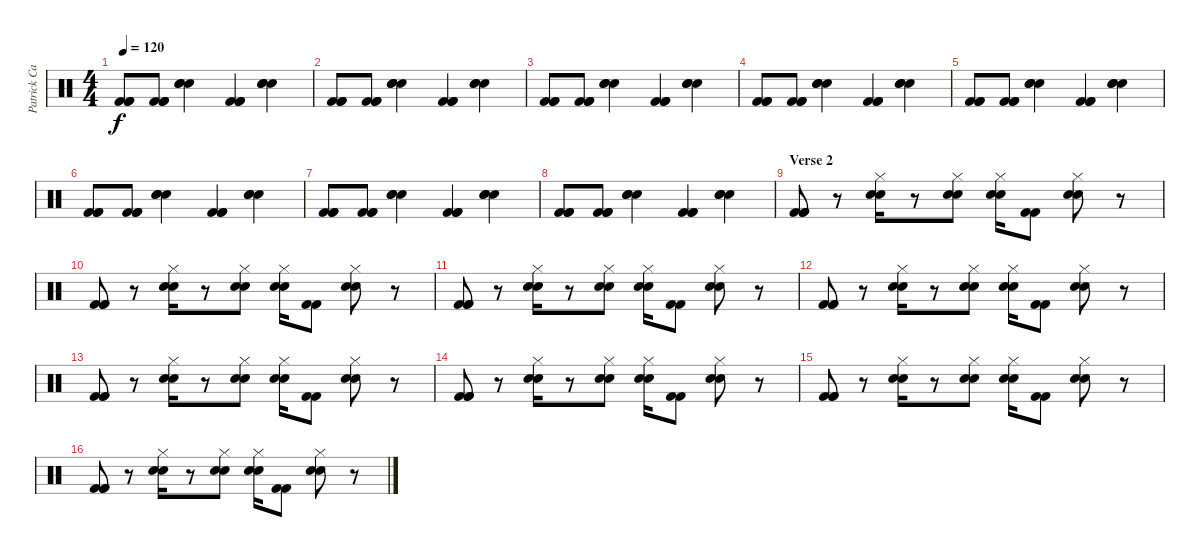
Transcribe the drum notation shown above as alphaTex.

\track ("Patrick Carney (Drums)" "Patrick Ca") {instrument percussion}
\staff {score}
\articulation defaults
\ts (4 4)
\tempo 120
\clef neutral
\ks c
("Kick (hit) 2" "Kick (hit) 2" "Kick (hit) 2").8{dy f} ("Kick (hit) 2" "Kick (hit) 2" "Kick (hit) 2").8 ("Electric Snare (hit)" "Snare (hit) 2" "Snare (hit) 2").4 ("Kick (hit) 2" "Kick (hit) 2" "Kick (hit) 2").4 ("Electric Snare (hit)" "Snare (hit) 2" "Snare (hit) 2").4 |
("Kick (hit) 2" "Kick (hit) 2" "Kick (hit) 2").8 ("Kick (hit) 2" "Kick (hit) 2" "Kick (hit) 2").8 ("Electric Snare (hit)" "Snare (hit) 2" "Snare (hit) 2").4 ("Kick (hit) 2" "Kick (hit) 2" "Kick (hit) 2").4 ("Electric Snare (hit)" "Snare (hit) 2" "Snare (hit) 2").4 |
("Kick (hit) 2" "Kick (hit) 2" "Kick (hit) 2").8 ("Kick (hit) 2" "Kick (hit) 2" "Kick (hit) 2").8 ("Electric Snare (hit)" "Snare (hit) 2" "Snare (hit) 2").4 ("Kick (hit) 2" "Kick (hit) 2" "Kick (hit) 2").4 ("Electric Snare (hit)" "Snare (hit) 2" "Snare (hit) 2").4 |
("Kick (hit) 2" "Kick (hit) 2" "Kick (hit) 2").8 ("Kick (hit) 2" "Kick (hit) 2" "Kick (hit) 2").8 ("Electric Snare (hit)" "Snare (hit) 2" "Snare (hit) 2").4 ("Kick (hit) 2" "Kick (hit) 2" "Kick (hit) 2").4 ("Electric Snare (hit)" "Snare (hit) 2" "Snare (hit) 2").4 |
("Kick (hit) 2" "Kick (hit) 2" "Kick (hit) 2").8 ("Kick (hit) 2" "Kick (hit) 2" "Kick (hit) 2").8 ("Electric Snare (hit)" "Snare (hit) 2" "Snare (hit) 2").4 ("Kick (hit) 2" "Kick (hit) 2" "Kick (hit) 2").4 ("Electric Snare (hit)" "Snare (hit) 2" "Snare (hit) 2").4 |
("Kick (hit) 2" "Kick (hit) 2" "Kick (hit) 2").8 ("Kick (hit) 2" "Kick (hit) 2" "Kick (hit) 2").8 ("Electric Snare (hit)" "Snare (hit) 2" "Snare (hit) 2").4 ("Kick (hit) 2" "Kick (hit) 2" "Kick (hit) 2").4 ("Electric Snare (hit)" "Snare (hit) 2" "Snare (hit) 2").4 |
("Kick (hit) 2" "Kick (hit) 2" "Kick (hit) 2").8 ("Kick (hit) 2" "Kick (hit) 2" "Kick (hit) 2").8 ("Electric Snare (hit)" "Snare (hit) 2" "Snare (hit) 2").4 ("Kick (hit) 2" "Kick (hit) 2" "Kick (hit) 2").4 ("Electric Snare (hit)" "Snare (hit) 2" "Snare (hit) 2").4 |
("Kick (hit) 2" "Kick (hit) 2" "Kick (hit) 2").8 ("Kick (hit) 2" "Kick (hit) 2" "Kick (hit) 2").8 ("Electric Snare (hit)" "Snare (hit) 2" "Snare (hit) 2").4 ("Kick (hit) 2" "Kick (hit) 2" "Kick (hit) 2").4 ("Electric Snare (hit)" "Snare (hit) 2" "Snare (hit) 2").4 |
\section ("" "Verse 2")
("Kick (hit) 2" "Kick (hit) 2" "Kick (hit) 2").8 r.8 ("Electric Snare (hit)" "Snare (hit) 2" "Hi-Hat (closed)").16 r.8 ("Electric Snare (hit)" "Snare (hit) 2" "Hi-Hat (closed)").8 ("Electric Snare (hit)" "Snare (hit) 2" "Hi-Hat (closed)").16 ("Kick (hit) 2" "Kick (hit) 2").8 ("Electric Snare (hit)" "Snare (hit) 2" "Hi-Hat (closed)").8 r.8 |
("Kick (hit) 2" "Kick (hit) 2" "Kick (hit) 2").8 r.8 ("Electric Snare (hit)" "Snare (hit) 2" "Hi-Hat (closed)").16 r.8 ("Electric Snare (hit)" "Snare (hit) 2" "Hi-Hat (closed)").8 ("Electric Snare (hit)" "Snare (hit) 2" "Hi-Hat (closed)").16 ("Kick (hit) 2" "Kick (hit) 2").8 ("Electric Snare (hit)" "Snare (hit) 2" "Hi-Hat (closed)").8 r.8 |
("Kick (hit) 2" "Kick (hit) 2" "Kick (hit) 2").8 r.8 ("Electric Snare (hit)" "Snare (hit) 2" "Hi-Hat (closed)").16 r.8 ("Electric Snare (hit)" "Snare (hit) 2" "Hi-Hat (closed)").8 ("Electric Snare (hit)" "Snare (hit) 2" "Hi-Hat (closed)").16 ("Kick (hit) 2" "Kick (hit) 2").8 ("Electric Snare (hit)" "Snare (hit) 2" "Hi-Hat (closed)").8 r.8 |
("Kick (hit) 2" "Kick (hit) 2" "Kick (hit) 2").8 r.8 ("Electric Snare (hit)" "Snare (hit) 2" "Hi-Hat (closed)").16 r.8 ("Electric Snare (hit)" "Snare (hit) 2" "Hi-Hat (closed)").8 ("Electric Snare (hit)" "Snare (hit) 2" "Hi-Hat (closed)").16 ("Kick (hit) 2" "Kick (hit) 2").8 ("Electric Snare (hit)" "Snare (hit) 2" "Hi-Hat (closed)").8 r.8 |
("Kick (hit) 2" "Kick (hit) 2" "Kick (hit) 2").8 r.8 ("Electric Snare (hit)" "Snare (hit) 2" "Hi-Hat (closed)").16 r.8 ("Electric Snare (hit)" "Snare (hit) 2" "Hi-Hat (closed)").8 ("Electric Snare (hit)" "Snare (hit) 2" "Hi-Hat (closed)").16 ("Kick (hit) 2" "Kick (hit) 2").8 ("Electric Snare (hit)" "Snare (hit) 2" "Hi-Hat (closed)").8 r.8 |
("Kick (hit) 2" "Kick (hit) 2" "Kick (hit) 2").8 r.8 ("Electric Snare (hit)" "Snare (hit) 2" "Hi-Hat (closed)").16 r.8 ("Electric Snare (hit)" "Snare (hit) 2" "Hi-Hat (closed)").8 ("Electric Snare (hit)" "Snare (hit) 2" "Hi-Hat (closed)").16 ("Kick (hit) 2" "Kick (hit) 2").8 ("Electric Snare (hit)" "Snare (hit) 2" "Hi-Hat (closed)").8 r.8 |
("Kick (hit) 2" "Kick (hit) 2" "Kick (hit) 2").8 r.8 ("Electric Snare (hit)" "Snare (hit) 2" "Hi-Hat (closed)").16 r.8 ("Electric Snare (hit)" "Snare (hit) 2" "Hi-Hat (closed)").8 ("Electric Snare (hit)" "Snare (hit) 2" "Hi-Hat (closed)").16 ("Kick (hit) 2" "Kick (hit) 2").8 ("Electric Snare (hit)" "Snare (hit) 2" "Hi-Hat (closed)").8 r.8 |
("Kick (hit) 2" "Kick (hit) 2" "Kick (hit) 2").8 r.8 ("Electric Snare (hit)" "Snare (hit) 2" "Hi-Hat (closed)").16 r.8 ("Electric Snare (hit)" "Snare (hit) 2" "Hi-Hat (closed)").8 ("Electric Snare (hit)" "Snare (hit) 2" "Hi-Hat (closed)").16 ("Kick (hit) 2" "Kick (hit) 2").8 ("Electric Snare (hit)" "Snare (hit) 2" "Hi-Hat (closed)").8 r.8
